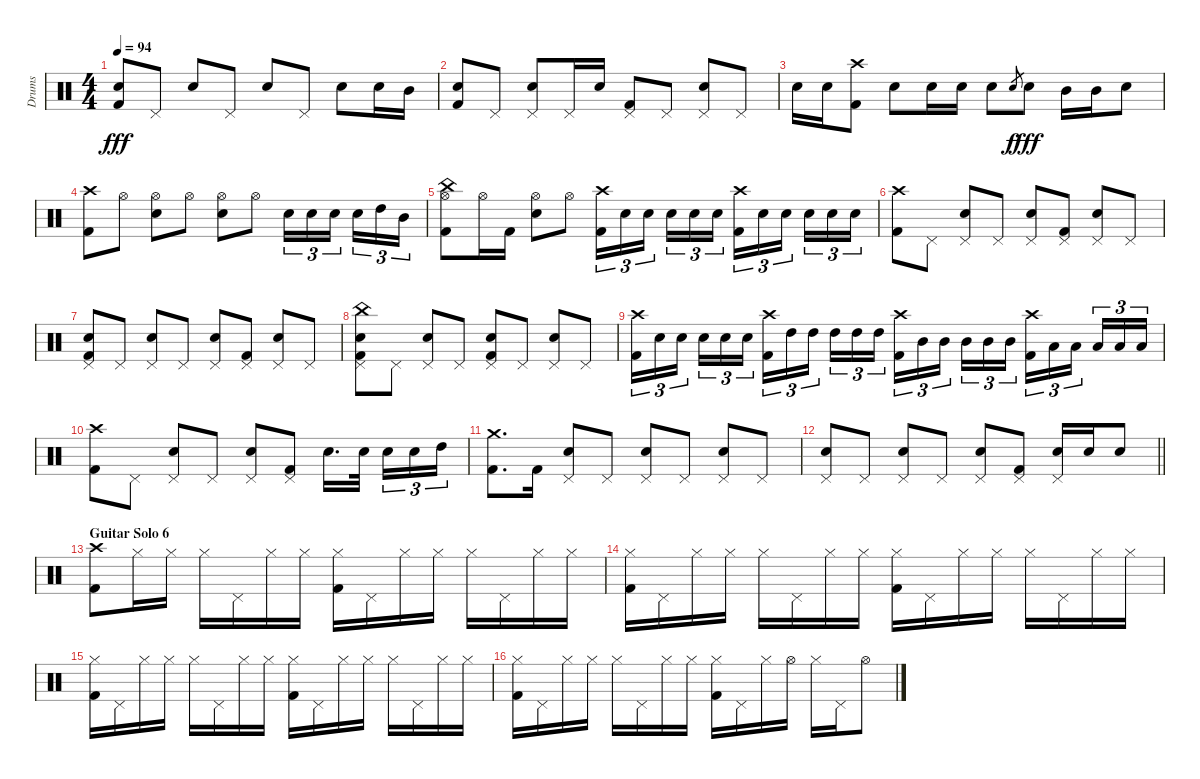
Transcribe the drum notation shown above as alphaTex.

\track ("Drums" "Drums") {instrument percussion}
\staff {score}
\articulation defaults
\ts (4 4)
\tempo 94
\clef neutral
\ks c
("Electric Snare (hit)" "Kick (hit) 2").8{dy fff} "Pedal Hi-Hat (hit)".8 "Electric Snare (hit)".8 "Pedal Hi-Hat (hit)".8 "Electric Snare (hit)".8 "Pedal Hi-Hat (hit)".8 "Electric Snare (hit)".8 "Electric Snare (hit)".16 "Mid Tom (hit)".16 |
("Electric Snare (hit)" "Kick (hit) 2").8 "Pedal Hi-Hat (hit)".8 ("Pedal Hi-Hat (hit)" "Electric Snare (hit)").8 "Pedal Hi-Hat (hit)".16 "Electric Snare (hit)".16 ("Pedal Hi-Hat (hit)" "Kick (hit) 2").8 "Pedal Hi-Hat (hit)".8 ("Pedal Hi-Hat (hit)" "Electric Snare (hit)").8 "Pedal Hi-Hat (hit)".8 |
"Electric Snare (hit)".16 "Electric Snare (hit)".16 ("Crash high (hit)" "Kick (hit) 2").8 "Electric Snare (hit)".8 "Electric Snare (hit)".16 "Electric Snare (hit)".16 "Electric Snare (hit)".8 "Electric Snare (hit)".8{gr dy f} "Electric Snare (hit)".8{dy fff} "Mid Tom (hit)".16 "Mid Tom (hit)".16 "Electric Snare (hit)".8 |
("Crash high (hit)" "Kick (hit) 2").8 "Hi-Hat (open)".8 ("Hi-Hat (open)" "Electric Snare (hit)").8 "Hi-Hat (open)".8 ("Hi-Hat (open)" "Electric Snare (hit)").8 "Hi-Hat (open)".8 "Electric Snare (hit)".16{tu (3 2)} "Electric Snare (hit)".16{tu (3 2)} "Electric Snare (hit)".16{tu (3 2) beam splitsecondary} "Electric Snare (hit)".16{tu (3 2)} "High Tom (hit)".16{tu (3 2)} "Mid Tom (hit)".16{tu (3 2)} |
("China (hit)" "Hi-Hat (open)" "Kick (hit) 2").8 "Hi-Hat (open)".16 "Kick (hit) 2".16 ("Hi-Hat (open)" "Electric Snare (hit)").8 "Hi-Hat (open)".8 ("Crash high (hit)" "Kick (hit) 2").16{tu (3 2)} "Electric Snare (hit)".16{tu (3 2)} "Electric Snare (hit)".16{tu (3 2) beam splitsecondary} "Electric Snare (hit)".16{tu (3 2)} "Electric Snare (hit)".16{tu (3 2)} "Electric Snare (hit)".16{tu (3 2)} ("Crash high (hit)" "Kick (hit) 2").16{tu (3 2)} "Electric Snare (hit)".16{tu (3 2)} "Electric Snare (hit)".16{tu (3 2) beam splitsecondary} "Electric Snare (hit)".16{tu (3 2)} "Electric Snare (hit)".16{tu (3 2)} "Electric Snare (hit)".16{tu (3 2)} |
("Crash high (hit)" "Kick (hit) 2").8 "Pedal Hi-Hat (hit)".8 ("Pedal Hi-Hat (hit)" "Electric Snare (hit)").8 "Pedal Hi-Hat (hit)".8 ("Pedal Hi-Hat (hit)" "Electric Snare (hit)").8 ("Pedal Hi-Hat (hit)" "Kick (hit) 2").8 ("Pedal Hi-Hat (hit)" "Electric Snare (hit)").8 "Pedal Hi-Hat (hit)".8 |
("Pedal Hi-Hat (hit)" "Electric Snare (hit)" "Kick (hit) 2").8 "Pedal Hi-Hat (hit)".8 ("Pedal Hi-Hat (hit)" "Electric Snare (hit)").8 "Pedal Hi-Hat (hit)".8 ("Pedal Hi-Hat (hit)" "Electric Snare (hit)").8 ("Pedal Hi-Hat (hit)" "Kick (hit) 2").8 ("Pedal Hi-Hat (hit)" "Electric Snare (hit)").8 "Pedal Hi-Hat (hit)".8 |
("China (hit)" "Pedal Hi-Hat (hit)" "Electric Snare (hit)" "Kick (hit) 2").8 "Pedal Hi-Hat (hit)".8 ("Pedal Hi-Hat (hit)" "Electric Snare (hit)").8 "Pedal Hi-Hat (hit)".8 ("Pedal Hi-Hat (hit)" "Electric Snare (hit)" "Kick (hit) 2").8 "Pedal Hi-Hat (hit)".8 ("Pedal Hi-Hat (hit)" "Electric Snare (hit)").8 "Pedal Hi-Hat (hit)".8 |
("Crash high (hit)" "Kick (hit) 2").16{tu (3 2)} "Electric Snare (hit)".16{tu (3 2)} "Electric Snare (hit)".16{tu (3 2) beam splitsecondary} "Electric Snare (hit)".16{tu (3 2)} "Electric Snare (hit)".16{tu (3 2)} "Electric Snare (hit)".16{tu (3 2)} ("Crash high (hit)" "Kick (hit) 2").16{tu (3 2)} "High Tom (hit)".16{tu (3 2)} "High Tom (hit)".16{tu (3 2) beam splitsecondary} "High Tom (hit)".16{tu (3 2)} "High Tom (hit)".16{tu (3 2)} "High Tom (hit)".16{tu (3 2)} ("Crash high (hit)" "Kick (hit) 2").16{tu (3 2)} "Mid Tom (hit)".16{tu (3 2)} "Mid Tom (hit)".16{tu (3 2) beam splitsecondary} "Mid Tom (hit)".16{tu (3 2)} "Mid Tom (hit)".16{tu (3 2)} "Mid Tom (hit)".16{tu (3 2)} ("Crash high (hit)" "Kick (hit) 2").16{tu (3 2)} "Low Tom (hit)".16{tu (3 2)} "Low Tom (hit)".16{tu (3 2) beam splitsecondary} "Low Tom (hit)".16{tu (3 2)} "Low Tom (hit)".16{tu (3 2)} "Low Tom (hit)".16{tu (3 2)} |
("Crash high (hit)" "Kick (hit) 2").8 "Pedal Hi-Hat (hit)".8 ("Pedal Hi-Hat (hit)" "Electric Snare (hit)").8 "Pedal Hi-Hat (hit)".8 ("Pedal Hi-Hat (hit)" "Electric Snare (hit)").8 ("Pedal Hi-Hat (hit)" "Kick (hit) 2").8 "Electric Snare (hit)".16{d} "Electric Snare (hit)".32{beam splitsecondary} "Electric Snare (hit)".16{tu (3 2)} "Electric Snare (hit)".16{tu (3 2)} "High Tom (hit)".16{tu (3 2)} |
("Crash medium (hit)" "Kick (hit) 2").8{d} "Kick (hit) 2".16 ("Pedal Hi-Hat (hit)" "Electric Snare (hit)").8 "Pedal Hi-Hat (hit)".8 ("Pedal Hi-Hat (hit)" "Electric Snare (hit)").8 "Pedal Hi-Hat (hit)".8 ("Pedal Hi-Hat (hit)" "Electric Snare (hit)").8 "Pedal Hi-Hat (hit)".8 |
\barLineRight lightlight
("Pedal Hi-Hat (hit)" "Electric Snare (hit)").8 "Pedal Hi-Hat (hit)".8 ("Pedal Hi-Hat (hit)" "Electric Snare (hit)").8 "Pedal Hi-Hat (hit)".8 ("Pedal Hi-Hat (hit)" "Electric Snare (hit)").8 ("Pedal Hi-Hat (hit)" "Kick (hit) 2").8 ("Pedal Hi-Hat (hit)" "Electric Snare (hit)").16 "Electric Snare (hit)".16 "Electric Snare (hit)".8 |
\section ("" "Guitar Solo 6")
("Crash high (hit)" "Kick (hit) 2").8 "Hi-Hat (closed)".16 "Hi-Hat (closed)".16 "Hi-Hat (closed)".16 "Pedal Hi-Hat (hit)".16 "Hi-Hat (closed)".16 "Hi-Hat (closed)".16 ("Hi-Hat (closed)" "Kick (hit) 2").16 "Pedal Hi-Hat (hit)".16 "Hi-Hat (closed)".16 "Hi-Hat (closed)".16 "Hi-Hat (closed)".16 "Pedal Hi-Hat (hit)".16 "Hi-Hat (closed)".16 "Hi-Hat (closed)".16 |
("Hi-Hat (closed)" "Kick (hit) 2").16 "Pedal Hi-Hat (hit)".16 "Hi-Hat (closed)".16 "Hi-Hat (closed)".16 "Hi-Hat (closed)".16 "Pedal Hi-Hat (hit)".16 "Hi-Hat (closed)".16 "Hi-Hat (closed)".16 ("Hi-Hat (closed)" "Kick (hit) 2").16 "Pedal Hi-Hat (hit)".16 "Hi-Hat (closed)".16 "Hi-Hat (closed)".16 "Hi-Hat (closed)".16 "Pedal Hi-Hat (hit)".16 "Hi-Hat (closed)".16 "Hi-Hat (closed)".16 |
("Hi-Hat (closed)" "Kick (hit) 2").16 "Pedal Hi-Hat (hit)".16 "Hi-Hat (closed)".16 "Hi-Hat (closed)".16 "Hi-Hat (closed)".16 "Pedal Hi-Hat (hit)".16 "Hi-Hat (closed)".16 "Hi-Hat (closed)".16 ("Hi-Hat (closed)" "Kick (hit) 2").16 "Pedal Hi-Hat (hit)".16 "Hi-Hat (closed)".16 "Hi-Hat (closed)".16 "Hi-Hat (closed)".16 "Pedal Hi-Hat (hit)".16 "Hi-Hat (closed)".16 "Hi-Hat (closed)".16 |
("Hi-Hat (closed)" "Kick (hit) 2").16 "Pedal Hi-Hat (hit)".16 "Hi-Hat (closed)".16 "Hi-Hat (closed)".16 "Hi-Hat (closed)".16 "Pedal Hi-Hat (hit)".16 "Hi-Hat (closed)".16 "Hi-Hat (closed)".16 ("Hi-Hat (closed)" "Kick (hit) 2").16 "Pedal Hi-Hat (hit)".16 "Hi-Hat (closed)".16 "Hi-Hat (open)".16 "Hi-Hat (closed)".16 "Pedal Hi-Hat (hit)".16 "Hi-Hat (open)".8
